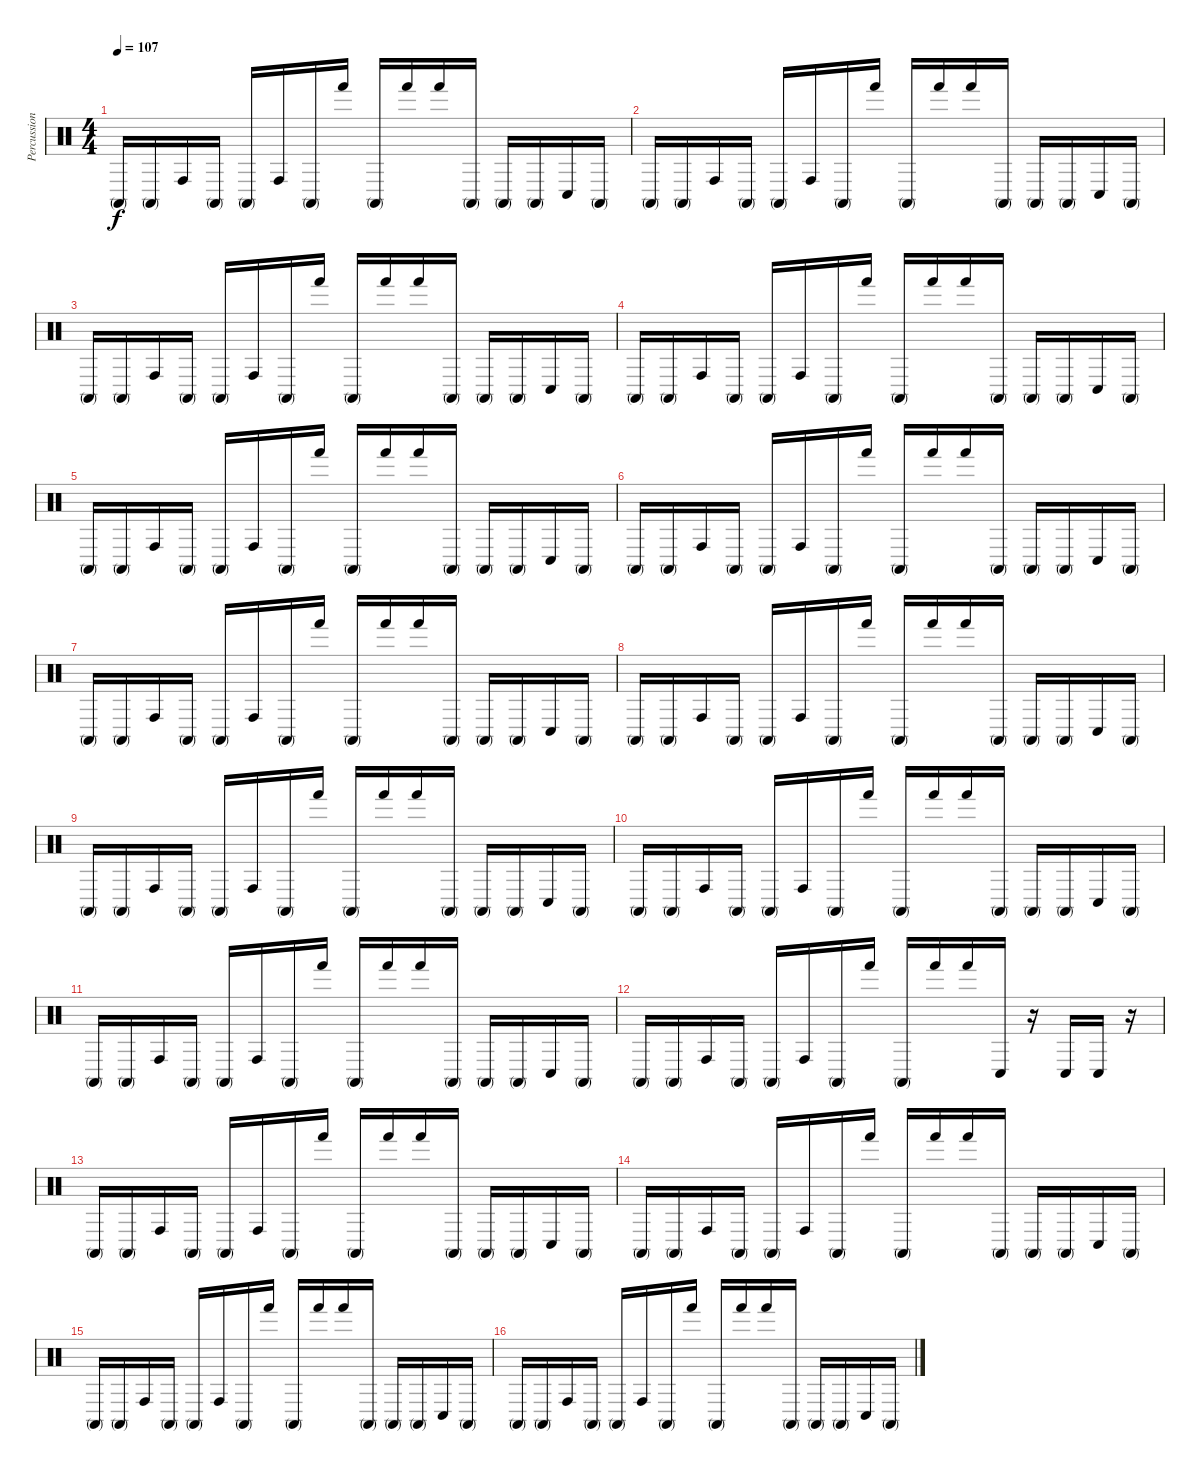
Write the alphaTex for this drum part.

\track ("Percussioni" "Percussion") {instrument percussion}
\staff {score}
\articulation defaults
\ts (4 4)
\tempo 107
\clef neutral
\ks c "Conga high (mute)".16{dy f} "Conga high (mute)".16 "Conga high (hit)".16 "Conga high (mute)".16 "Conga high (mute)".16 "Conga high (hit)".16 "Conga high (mute)".16 "Hand (hit)".16 "Conga high (mute)".16 "Hand (hit)".16 "Hand (hit)".16 "Conga high (mute)".16 "Conga high (mute)".16 "Conga high (mute)".16 "Conga low (hit)".16 "Conga high (mute)".16
|
"Conga high (mute)".16 "Conga high (mute)".16 "Conga high (hit)".16 "Conga high (mute)".16 "Conga high (mute)".16 "Conga high (hit)".16 "Conga high (mute)".16 "Hand (hit)".16 "Conga high (mute)".16 "Hand (hit)".16 "Hand (hit)".16 "Conga high (mute)".16 "Conga high (mute)".16 "Conga high (mute)".16 "Conga low (hit)".16 "Conga high (mute)".16 |
"Conga high (mute)".16 "Conga high (mute)".16 "Conga high (hit)".16 "Conga high (mute)".16 "Conga high (mute)".16 "Conga high (hit)".16 "Conga high (mute)".16 "Hand (hit)".16 "Conga high (mute)".16 "Hand (hit)".16 "Hand (hit)".16 "Conga high (mute)".16 "Conga high (mute)".16 "Conga high (mute)".16 "Conga low (hit)".16 "Conga high (mute)".16 |
"Conga high (mute)".16 "Conga high (mute)".16 "Conga high (hit)".16 "Conga high (mute)".16 "Conga high (mute)".16 "Conga high (hit)".16 "Conga high (mute)".16 "Hand (hit)".16 "Conga high (mute)".16 "Hand (hit)".16 "Hand (hit)".16 "Conga high (mute)".16 "Conga high (mute)".16 "Conga high (mute)".16 "Conga low (hit)".16 "Conga high (mute)".16 |
"Conga high (mute)".16 "Conga high (mute)".16 "Conga high (hit)".16 "Conga high (mute)".16 "Conga high (mute)".16 "Conga high (hit)".16 "Conga high (mute)".16 "Hand (hit)".16 "Conga high (mute)".16 "Hand (hit)".16 "Hand (hit)".16 "Conga high (mute)".16 "Conga high (mute)".16 "Conga high (mute)".16 "Conga low (hit)".16 "Conga high (mute)".16 |
"Conga high (mute)".16 "Conga high (mute)".16 "Conga high (hit)".16 "Conga high (mute)".16 "Conga high (mute)".16 "Conga high (hit)".16 "Conga high (mute)".16 "Hand (hit)".16 "Conga high (mute)".16 "Hand (hit)".16 "Hand (hit)".16 "Conga high (mute)".16 "Conga high (mute)".16 "Conga high (mute)".16 "Conga low (hit)".16 "Conga high (mute)".16 |
"Conga high (mute)".16 "Conga high (mute)".16 "Conga high (hit)".16 "Conga high (mute)".16 "Conga high (mute)".16 "Conga high (hit)".16 "Conga high (mute)".16 "Hand (hit)".16 "Conga high (mute)".16 "Hand (hit)".16 "Hand (hit)".16 "Conga high (mute)".16 "Conga high (mute)".16 "Conga high (mute)".16 "Conga low (hit)".16 "Conga high (mute)".16 |
"Conga high (mute)".16 "Conga high (mute)".16 "Conga high (hit)".16 "Conga high (mute)".16 "Conga high (mute)".16 "Conga high (hit)".16 "Conga high (mute)".16 "Hand (hit)".16 "Conga high (mute)".16 "Hand (hit)".16 "Hand (hit)".16 "Conga high (mute)".16 "Conga high (mute)".16 "Conga high (mute)".16 "Conga low (hit)".16 "Conga high (mute)".16 |
"Conga high (mute)".16 "Conga high (mute)".16 "Conga high (hit)".16 "Conga high (mute)".16 "Conga high (mute)".16 "Conga high (hit)".16 "Conga high (mute)".16 "Hand (hit)".16 "Conga high (mute)".16 "Hand (hit)".16 "Hand (hit)".16 "Conga high (mute)".16 "Conga high (mute)".16 "Conga high (mute)".16 "Conga low (hit)".16 "Conga high (mute)".16 |
"Conga high (mute)".16 "Conga high (mute)".16 "Conga high (hit)".16 "Conga high (mute)".16 "Conga high (mute)".16 "Conga high (hit)".16 "Conga high (mute)".16 "Hand (hit)".16 "Conga high (mute)".16 "Hand (hit)".16 "Hand (hit)".16 "Conga high (mute)".16 "Conga high (mute)".16 "Conga high (mute)".16 "Conga low (hit)".16 "Conga high (mute)".16 |
"Conga high (mute)".16 "Conga high (mute)".16 "Conga high (hit)".16 "Conga high (mute)".16 "Conga high (mute)".16 "Conga high (hit)".16 "Conga high (mute)".16 "Hand (hit)".16 "Conga high (mute)".16 "Hand (hit)".16 "Hand (hit)".16 "Conga high (mute)".16 "Conga high (mute)".16 "Conga high (mute)".16 "Conga low (hit)".16 "Conga high (mute)".16 |
"Conga high (mute)".16 "Conga high (mute)".16 "Conga high (hit)".16 "Conga high (mute)".16 "Conga high (mute)".16 "Conga high (hit)".16 "Conga high (mute)".16 "Hand (hit)".16 "Conga high (mute)".16 "Hand (hit)".16 "Hand (hit)".16 "Conga low (hit)".16 r.16 "Conga low (hit)".16 "Conga low (hit)".16 r.16 |
"Conga high (mute)".16 "Conga high (mute)".16 "Conga high (hit)".16 "Conga high (mute)".16 "Conga high (mute)".16 "Conga high (hit)".16 "Conga high (mute)".16 "Hand (hit)".16 "Conga high (mute)".16 "Hand (hit)".16 "Hand (hit)".16 "Conga high (mute)".16 "Conga high (mute)".16 "Conga high (mute)".16 "Conga low (hit)".16 "Conga high (mute)".16 |
"Conga high (mute)".16 "Conga high (mute)".16 "Conga high (hit)".16 "Conga high (mute)".16 "Conga high (mute)".16 "Conga high (hit)".16 "Conga high (mute)".16 "Hand (hit)".16 "Conga high (mute)".16 "Hand (hit)".16 "Hand (hit)".16 "Conga high (mute)".16 "Conga high (mute)".16 "Conga high (mute)".16 "Conga low (hit)".16 "Conga high (mute)".16 |
"Conga high (mute)".16 "Conga high (mute)".16 "Conga high (hit)".16 "Conga high (mute)".16 "Conga high (mute)".16 "Conga high (hit)".16 "Conga high (mute)".16 "Hand (hit)".16 "Conga high (mute)".16 "Hand (hit)".16 "Hand (hit)".16 "Conga high (mute)".16 "Conga high (mute)".16 "Conga high (mute)".16 "Conga low (hit)".16 "Conga high (mute)".16 |
"Conga high (mute)".16 "Conga high (mute)".16 "Conga high (hit)".16 "Conga high (mute)".16 "Conga high (mute)".16 "Conga high (hit)".16 "Conga high (mute)".16 "Hand (hit)".16 "Conga high (mute)".16 "Hand (hit)".16 "Hand (hit)".16 "Conga high (mute)".16 "Conga high (mute)".16 "Conga high (mute)".16 "Conga low (hit)".16 "Conga high (mute)".16
